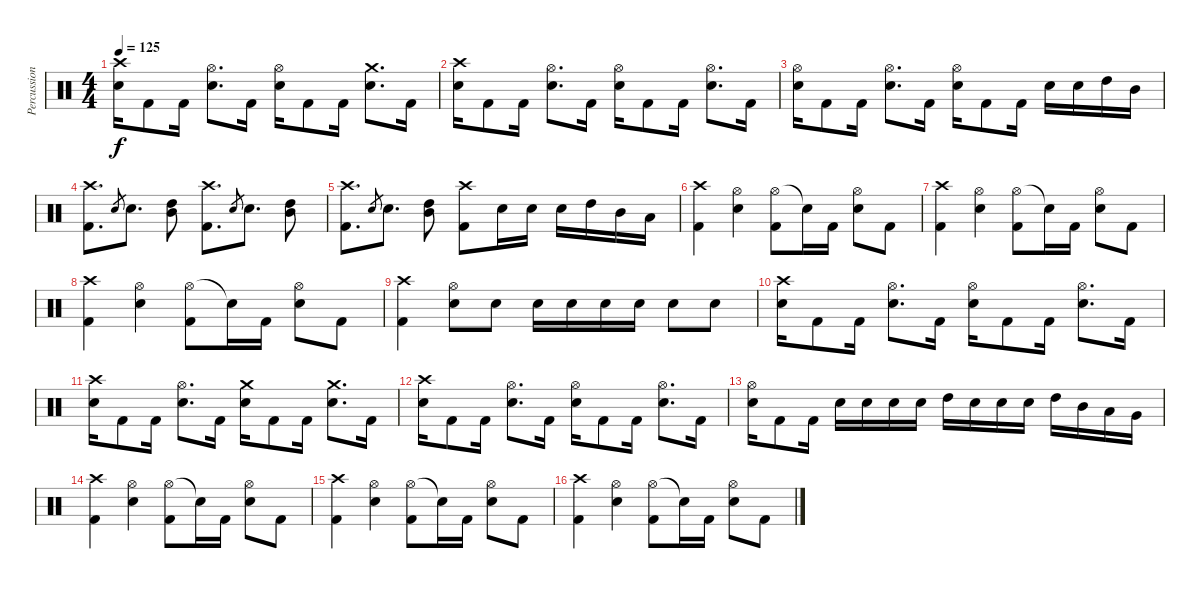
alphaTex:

\track ("Percussion" "Percussion") {instrument percussion}
\staff {score}
\articulation defaults
\ts (4 4)
\tempo 125
\clef neutral
\ks c
("Crash high (hit)" "Electric Snare (hit)").16{dy f} "Kick (hit) 2".8 "Kick (hit) 2".16 ("Hi-Hat (open)" "Electric Snare (hit)").8{d} "Kick (hit) 2".16 ("Hi-Hat (open)" "Electric Snare (hit)").16 "Kick (hit) 2".8 "Kick (hit) 2".16 ("Crash medium (hit)" "Electric Snare (hit)").8{d} "Kick (hit) 2".16 |
("Crash high (hit)" "Electric Snare (hit)").16 "Kick (hit) 2".8 "Kick (hit) 2".16 ("Hi-Hat (open)" "Electric Snare (hit)").8{d} "Kick (hit) 2".16 ("Hi-Hat (open)" "Electric Snare (hit)").16 "Kick (hit) 2".8 "Kick (hit) 2".16 ("Hi-Hat (open)" "Electric Snare (hit)").8{d} "Kick (hit) 2".16 |
("Hi-Hat (open)" "Electric Snare (hit)").16 "Kick (hit) 2".8 "Kick (hit) 2".16 ("Hi-Hat (open)" "Electric Snare (hit)").8{d} "Kick (hit) 2".16 ("Hi-Hat (open)" "Electric Snare (hit)").16 "Kick (hit) 2".8 "Kick (hit) 2".16 "Electric Snare (hit)".16 "Electric Snare (hit)".16 "High Tom (hit)".16 "Mid Tom (hit)".16 |
("Crash high (hit)" "Kick (hit) 2").8{d} "Electric Snare (hit)".8{gr} "Electric Snare (hit)".8{d} ("High Tom (hit)" "Mid Tom (hit)").8 ("Crash high (hit)" "Kick (hit) 2").8{d} "Electric Snare (hit)".8{gr} "Electric Snare (hit)".8{d} ("High Tom (hit)" "Mid Tom (hit)").8 |
("Crash high (hit)" "Kick (hit) 2").8{d} "Electric Snare (hit)".8{gr} "Electric Snare (hit)".8{d} ("High Tom (hit)" "Mid Tom (hit)").8 ("Crash high (hit)" "Kick (hit) 2").8 "Electric Snare (hit)".16 "Electric Snare (hit)".16 "Electric Snare (hit)".16 "High Tom (hit)".16 "Mid Tom (hit)".16 "Low Tom (hit)".16 |
("Crash high (hit)" "Kick (hit) 2").4 ("Hi-Hat (open)" "Electric Snare (hit)").4 ("Hi-Hat (open)" "Kick (hit) 2").8 "Snare (hit)"{t}.16 "Kick (hit) 2".16 ("Hi-Hat (open)" "Electric Snare (hit)").8 "Kick (hit) 2".8 |
("Crash high (hit)" "Kick (hit) 2").4 ("Hi-Hat (open)" "Electric Snare (hit)").4 ("Hi-Hat (open)" "Kick (hit) 2").8 "Snare (hit)"{t}.16 "Kick (hit) 2".16 ("Hi-Hat (open)" "Electric Snare (hit)").8 "Kick (hit) 2".8 |
("Crash high (hit)" "Kick (hit) 2").4 ("Hi-Hat (open)" "Electric Snare (hit)").4 ("Hi-Hat (open)" "Kick (hit) 2").8 "Snare (hit)"{t}.16 "Kick (hit) 2".16 ("Hi-Hat (open)" "Electric Snare (hit)").8 "Kick (hit) 2".8 |
("Crash high (hit)" "Kick (hit) 2").4 ("Hi-Hat (open)" "Electric Snare (hit)").8 "Electric Snare (hit)".8 "Electric Snare (hit)".16 "Electric Snare (hit)".16 "Electric Snare (hit)".16 "Electric Snare (hit)".16 "Electric Snare (hit)".8 "Electric Snare (hit)".8 |
("Crash high (hit)" "Electric Snare (hit)").16 "Kick (hit) 2".8 "Kick (hit) 2".16 ("Hi-Hat (open)" "Electric Snare (hit)").8{d} "Kick (hit) 2".16 ("Hi-Hat (open)" "Electric Snare (hit)").16 "Kick (hit) 2".8 "Kick (hit) 2".16 ("Hi-Hat (open)" "Electric Snare (hit)").8{d} "Kick (hit) 2".16 |
("Crash high (hit)" "Electric Snare (hit)").16 "Kick (hit) 2".8 "Kick (hit) 2".16 ("Hi-Hat (open)" "Electric Snare (hit)").8{d} "Kick (hit) 2".16 ("Crash medium (hit)" "Electric Snare (hit)").16 "Kick (hit) 2".8 "Kick (hit) 2".16 ("Crash medium (hit)" "Electric Snare (hit)").8{d} "Kick (hit) 2".16 |
("Crash high (hit)" "Electric Snare (hit)").16 "Kick (hit) 2".8 "Kick (hit) 2".16 ("Hi-Hat (open)" "Electric Snare (hit)").8{d} "Kick (hit) 2".16 ("Hi-Hat (open)" "Electric Snare (hit)").16 "Kick (hit) 2".8 "Kick (hit) 2".16 ("Hi-Hat (open)" "Electric Snare (hit)").8{d} "Kick (hit) 2".16 |
("Hi-Hat (open)" "Electric Snare (hit)").16 "Kick (hit) 2".8 "Kick (hit) 2".16 "Electric Snare (hit)".16 "Electric Snare (hit)".16 "Electric Snare (hit)".16 "Electric Snare (hit)".16 "High Tom (hit)".16 "Electric Snare (hit)".16 "Electric Snare (hit)".16 "Electric Snare (hit)".16 "High Tom (hit)".16 "Mid Tom (hit)".16 "Low Tom (hit)".16 "Very Low Tom (hit)".16 |
("Crash high (hit)" "Kick (hit) 2").4 ("Hi-Hat (open)" "Electric Snare (hit)").4 ("Hi-Hat (open)" "Kick (hit) 2").8 "Snare (hit)"{t}.16 "Kick (hit) 2".16 ("Hi-Hat (open)" "Electric Snare (hit)").8 "Kick (hit) 2".8 |
("Crash high (hit)" "Kick (hit) 2").4 ("Hi-Hat (open)" "Electric Snare (hit)").4 ("Hi-Hat (open)" "Kick (hit) 2").8 "Snare (hit)"{t}.16 "Kick (hit) 2".16 ("Hi-Hat (open)" "Electric Snare (hit)").8 "Kick (hit) 2".8 |
("Crash high (hit)" "Kick (hit) 2").4 ("Hi-Hat (open)" "Electric Snare (hit)").4 ("Hi-Hat (open)" "Kick (hit) 2").8 "Snare (hit)"{t}.16 "Kick (hit) 2".16 ("Hi-Hat (open)" "Electric Snare (hit)").8 "Kick (hit) 2".8
